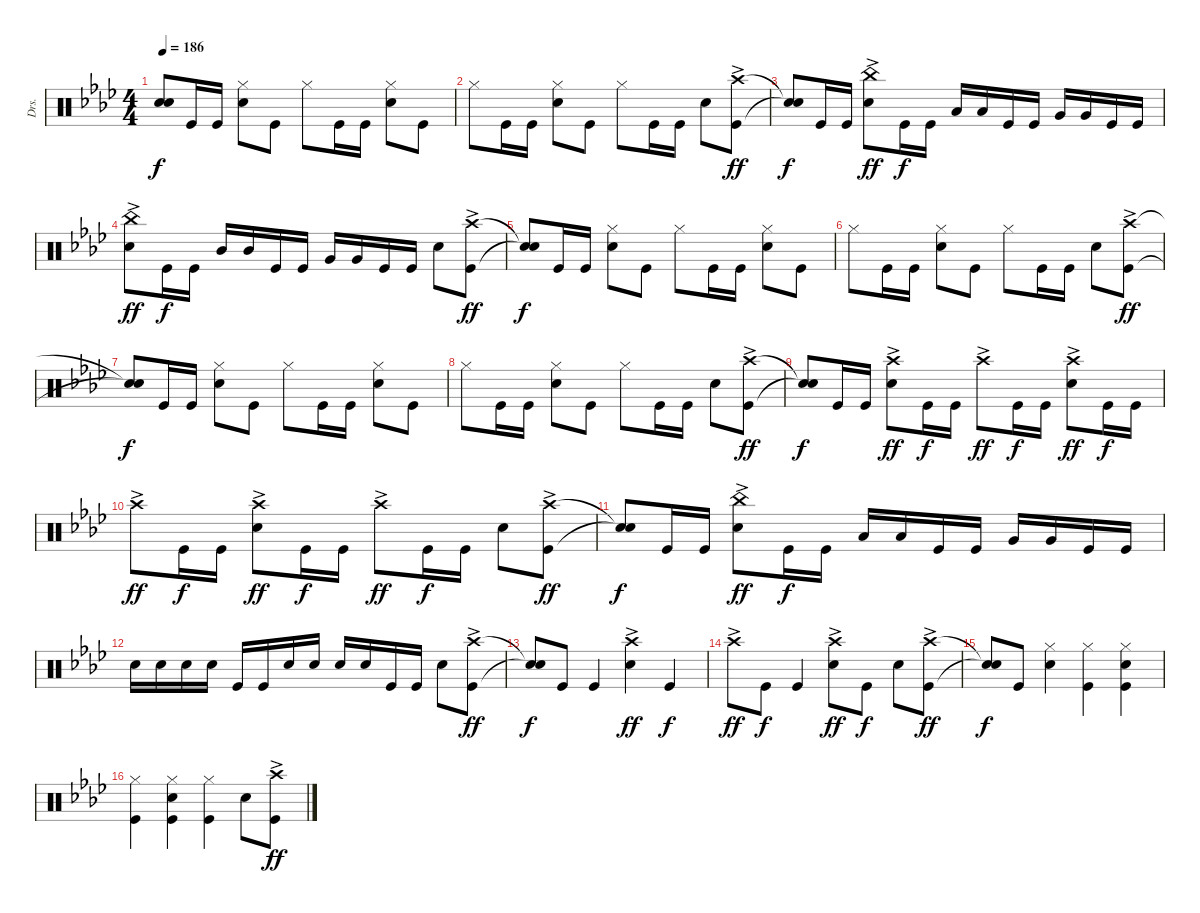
\track ("Drs." "Drs.") {instrument percussion}
\staff {score}
\articulation defaults
\ts (4 4)
\tempo 186
\clef neutral
\ks ab
("Snare (hit)"{t} "Snare (hit)"{t}).8{dy f} "Kick (hit)".16 "Kick (hit)".16 ("Hi-Hat (closed)" "Snare (hit) 2").8 "Kick (hit)".8 "Hi-Hat (closed)".8 "Kick (hit)".16 "Kick (hit)".16 ("Hi-Hat (closed)" "Snare (hit) 2").8 "Kick (hit)".8 |
"Hi-Hat (closed)".8 "Kick (hit)".16 "Kick (hit)".16 ("Hi-Hat (closed)" "Snare (hit) 2").8 "Kick (hit)".8 "Hi-Hat (closed)".8 "Kick (hit)".16 "Kick (hit)".16 "Snare (hit) 2".8 ("Crash high (hit)"{ac} "Kick (hit)").8{dy ff} |
("Snare (hit)"{t} "Snare (hit)"{t}).8{dy f} "Kick (hit)".16 "Kick (hit)".16 ("China (hit)"{ac} "Snare (hit) 2").8{dy ff} "Kick (hit)".16{dy f} "Kick (hit)".16 "Low Tom (hit)".16 "Low Tom (hit)".16 "Kick (hit)".16 "Kick (hit)".16 "Very Low Tom (hit)".16 "Very Low Tom (hit)".16 "Kick (hit)".16 "Kick (hit)".16 |
("China (hit)"{ac} "Snare (hit) 2").8{dy ff} "Kick (hit)".16{dy f} "Kick (hit)".16 "Mid Tom (hit)".16 "Mid Tom (hit)".16 "Kick (hit)".16 "Kick (hit)".16 "Very Low Tom (hit)".16 "Very Low Tom (hit)".16 "Kick (hit)".16 "Kick (hit)".16 "Snare (hit) 2".8 ("Crash high (hit)"{ac} "Kick (hit)").8{dy ff} |
("Snare (hit)"{t} "Snare (hit)"{t}).8{dy f} "Kick (hit)".16 "Kick (hit)".16 ("Hi-Hat (closed)" "Snare (hit) 2").8 "Kick (hit)".8 "Hi-Hat (closed)".8 "Kick (hit)".16 "Kick (hit)".16 ("Hi-Hat (closed)" "Snare (hit) 2").8 "Kick (hit)".8 |
"Hi-Hat (closed)".8 "Kick (hit)".16 "Kick (hit)".16 ("Hi-Hat (closed)" "Snare (hit) 2").8 "Kick (hit)".8 "Hi-Hat (closed)".8 "Kick (hit)".16 "Kick (hit)".16 "Snare (hit) 2".8 ("Crash high (hit)"{ac} "Kick (hit)").8{dy ff} |
("Snare (hit)"{t} "Snare (hit)"{t}).8{dy f} "Kick (hit)".16 "Kick (hit)".16 ("Hi-Hat (closed)" "Snare (hit) 2").8 "Kick (hit)".8 "Hi-Hat (closed)".8 "Kick (hit)".16 "Kick (hit)".16 ("Hi-Hat (closed)" "Snare (hit) 2").8 "Kick (hit)".8 |
"Hi-Hat (closed)".8 "Kick (hit)".16 "Kick (hit)".16 ("Hi-Hat (closed)" "Snare (hit) 2").8 "Kick (hit)".8 "Hi-Hat (closed)".8 "Kick (hit)".16 "Kick (hit)".16 "Snare (hit) 2".8 ("Crash high (hit)"{ac} "Kick (hit)").8{dy ff} |
("Snare (hit)"{t} "Snare (hit)"{t}).8{dy f} "Kick (hit)".16 "Kick (hit)".16 ("Crash high (hit)"{ac} "Snare (hit) 2").8{dy ff} "Kick (hit)".16{dy f} "Kick (hit)".16 "Crash high (hit)"{ac}.8{dy ff} "Kick (hit)".16{dy f} "Kick (hit)".16 ("Crash high (hit)"{ac} "Snare (hit) 2").8{dy ff} "Kick (hit)".16{dy f} "Kick (hit)".16 |
"Crash high (hit)"{ac}.8{dy ff} "Kick (hit)".16{dy f} "Kick (hit)".16 ("Crash high (hit)"{ac} "Snare (hit) 2").8{dy ff} "Kick (hit)".16{dy f} "Kick (hit)".16 "Crash high (hit)"{ac}.8{dy ff} "Kick (hit)".16{dy f} "Kick (hit)".16 "Snare (hit) 2".8 ("Crash high (hit)"{ac} "Kick (hit)").8{dy ff} |
("Snare (hit)"{t} "Snare (hit)"{t}).8{dy f} "Kick (hit)".16 "Kick (hit)".16 ("China (hit)"{ac} "Snare (hit) 2").8{dy ff} "Kick (hit)".16{dy f} "Kick (hit)".16 "Low Tom (hit)".16 "Low Tom (hit)".16 "Kick (hit)".16 "Kick (hit)".16 "Very Low Tom (hit)".16 "Very Low Tom (hit)".16 "Kick (hit)".16 "Kick (hit)".16 |
"Snare (hit) 2".16 "Snare (hit) 2".16 "Snare (hit) 2".16 "Snare (hit) 2".16 "Kick (hit)".16 "Kick (hit)".16 "Snare (hit) 2".16 "Snare (hit) 2".16 "Snare (hit) 2".16 "Snare (hit) 2".16 "Kick (hit)".16 "Kick (hit)".16 "Snare (hit) 2".8 ("Crash high (hit)"{ac} "Kick (hit)").8{dy ff} |
("Snare (hit)"{t} "Snare (hit)"{t}).8{dy f} "Kick (hit)".8 "Kick (hit)".4 ("Crash high (hit)"{ac} "Snare (hit) 2").4{dy ff} "Kick (hit)".4{dy f} |
"Crash high (hit)"{ac}.8{dy ff} "Kick (hit)".8{dy f} "Kick (hit)".4 ("Crash high (hit)"{ac} "Snare (hit) 2").8{dy ff} "Kick (hit)".8{dy f} "Snare (hit) 2".8 ("Crash high (hit)"{ac} "Kick (hit)").8{dy ff} |
("Snare (hit)"{t} "Snare (hit)"{t}).8{dy f} "Kick (hit)".8 ("Hi-Hat (closed)" "Snare (hit) 2").4 ("Hi-Hat (closed)" "Kick (hit)").4 ("Hi-Hat (closed)" "Snare (hit) 2" "Kick (hit)").4 |
("Hi-Hat (closed)" "Kick (hit)").4 ("Hi-Hat (closed)" "Snare (hit) 2" "Kick (hit)").4 ("Hi-Hat (closed)" "Kick (hit)").4 "Snare (hit) 2".8 ("Crash high (hit)"{ac} "Kick (hit)").8{dy ff}
